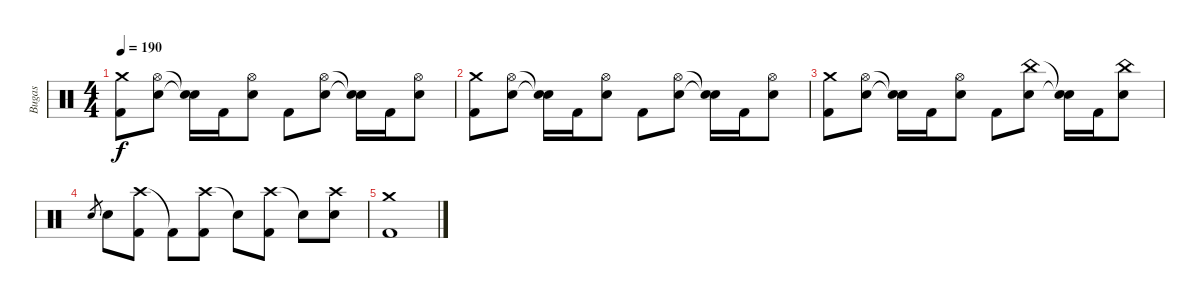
\track ("Bugas" "Bugas") {instrument percussion}
\staff {score}
\articulation defaults
\ts (4 4)
\tempo 190
\clef neutral
\ks c
("Crash medium (hit)" "Kick (hit) 2").8{dy f} ("Hi-Hat (open)" "Electric Snare (hit)").8 ("Snare (hit)"{t} "Snare (hit)"{t}).16 "Kick (hit) 2".16 ("Hi-Hat (open)" "Electric Snare (hit)").8 "Kick (hit) 2".8 ("Hi-Hat (open)" "Electric Snare (hit)").8 ("Snare (hit)"{t} "Snare (hit)"{t}).16 "Kick (hit) 2".16 ("Hi-Hat (open)" "Electric Snare (hit)").8 |
("Crash medium (hit)" "Kick (hit) 2").8 ("Hi-Hat (open)" "Electric Snare (hit)").8 ("Snare (hit)"{t} "Snare (hit)"{t}).16 "Kick (hit) 2".16 ("Hi-Hat (open)" "Electric Snare (hit)").8 "Kick (hit) 2".8 ("Hi-Hat (open)" "Electric Snare (hit)").8 ("Snare (hit)"{t} "Snare (hit)"{t}).16 "Kick (hit) 2".16 ("Hi-Hat (open)" "Electric Snare (hit)").8 |
("Crash medium (hit)" "Kick (hit) 2").8 ("Hi-Hat (open)" "Electric Snare (hit)").8 ("Snare (hit)"{t} "Snare (hit)"{t}).16 "Kick (hit) 2".16 ("Hi-Hat (open)" "Electric Snare (hit)").8 "Kick (hit) 2".8 ("China (hit)" "Electric Snare (hit)").8 ("Snare (hit)"{t} "Snare (hit)"{t}).16 "Kick (hit) 2".16 ("China (hit)" "Electric Snare (hit)").8 |
"Electric Snare (hit)".8{gr} "Electric Snare (hit)".8 ("Crash high (hit)" "Kick (hit) 2").8 "Kick (hit) 2"{t}.8 ("Crash high (hit)" "Kick (hit) 2").8 "Snare (hit)"{t}.8 ("Crash high (hit)" "Kick (hit) 2").8 "Snare (hit)"{t}.8 ("Crash high (hit)" "Electric Snare (hit)").8 |
("Crash medium (hit)" "Kick (hit) 2").1
